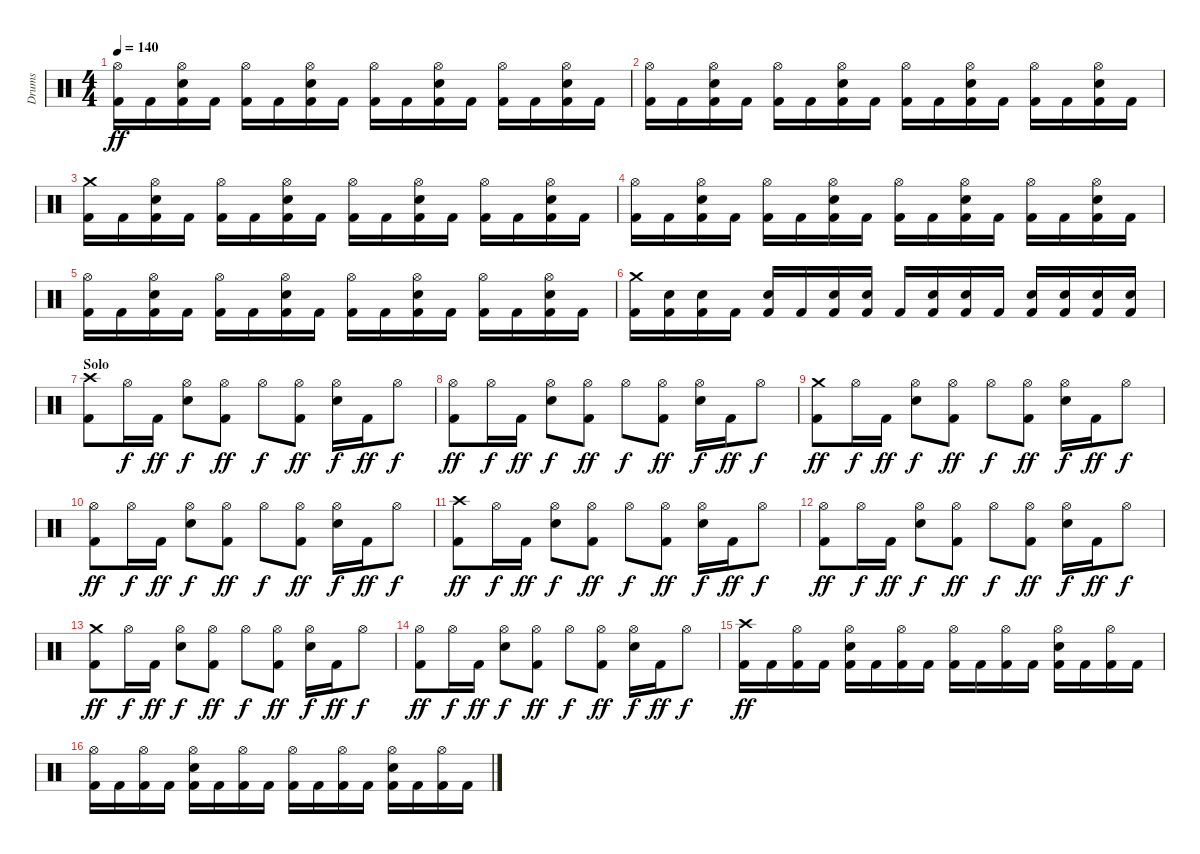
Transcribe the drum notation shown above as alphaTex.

\track ("Drums" "Drums") {instrument percussion}
\staff {score}
\articulation defaults
\ts (4 4)
\tempo 140
\clef neutral
\ks c
("Hi-Hat (open)" "Kick (hit) 2").16{dy ff} "Kick (hit) 2".16 ("Hi-Hat (open)" "Electric Snare (hit)" "Kick (hit) 2").16 "Kick (hit) 2".16 ("Hi-Hat (open)" "Kick (hit) 2").16 "Kick (hit) 2".16 ("Hi-Hat (open)" "Electric Snare (hit)" "Kick (hit) 2").16 "Kick (hit) 2".16 ("Hi-Hat (open)" "Kick (hit) 2").16 "Kick (hit) 2".16 ("Hi-Hat (open)" "Electric Snare (hit)" "Kick (hit) 2").16 "Kick (hit) 2".16 ("Hi-Hat (open)" "Kick (hit) 2").16 "Kick (hit) 2".16 ("Hi-Hat (open)" "Electric Snare (hit)" "Kick (hit) 2").16 "Kick (hit) 2".16 |
("Hi-Hat (open)" "Kick (hit) 2").16 "Kick (hit) 2".16 ("Hi-Hat (open)" "Electric Snare (hit)" "Kick (hit) 2").16 "Kick (hit) 2".16 ("Hi-Hat (open)" "Kick (hit) 2").16 "Kick (hit) 2".16 ("Hi-Hat (open)" "Electric Snare (hit)" "Kick (hit) 2").16 "Kick (hit) 2".16 ("Hi-Hat (open)" "Kick (hit) 2").16 "Kick (hit) 2".16 ("Hi-Hat (open)" "Electric Snare (hit)" "Kick (hit) 2").16 "Kick (hit) 2".16 ("Hi-Hat (open)" "Kick (hit) 2").16 "Kick (hit) 2".16 ("Hi-Hat (open)" "Electric Snare (hit)" "Kick (hit) 2").16 "Kick (hit) 2".16 |
("Crash medium (hit)" "Kick (hit) 2").16 "Kick (hit) 2".16 ("Hi-Hat (open)" "Electric Snare (hit)" "Kick (hit) 2").16 "Kick (hit) 2".16 ("Hi-Hat (open)" "Kick (hit) 2").16 "Kick (hit) 2".16 ("Hi-Hat (open)" "Electric Snare (hit)" "Kick (hit) 2").16 "Kick (hit) 2".16 ("Hi-Hat (open)" "Kick (hit) 2").16 "Kick (hit) 2".16 ("Hi-Hat (open)" "Electric Snare (hit)" "Kick (hit) 2").16 "Kick (hit) 2".16 ("Hi-Hat (open)" "Kick (hit) 2").16 "Kick (hit) 2".16 ("Hi-Hat (open)" "Electric Snare (hit)" "Kick (hit) 2").16 "Kick (hit) 2".16 |
("Hi-Hat (open)" "Kick (hit) 2").16 "Kick (hit) 2".16 ("Hi-Hat (open)" "Electric Snare (hit)" "Kick (hit) 2").16 "Kick (hit) 2".16 ("Hi-Hat (open)" "Kick (hit) 2").16 "Kick (hit) 2".16 ("Hi-Hat (open)" "Electric Snare (hit)" "Kick (hit) 2").16 "Kick (hit) 2".16 ("Hi-Hat (open)" "Kick (hit) 2").16 "Kick (hit) 2".16 ("Hi-Hat (open)" "Electric Snare (hit)" "Kick (hit) 2").16 "Kick (hit) 2".16 ("Hi-Hat (open)" "Kick (hit) 2").16 "Kick (hit) 2".16 ("Hi-Hat (open)" "Electric Snare (hit)" "Kick (hit) 2").16 "Kick (hit) 2".16 |
("Hi-Hat (open)" "Kick (hit) 2").16 "Kick (hit) 2".16 ("Hi-Hat (open)" "Electric Snare (hit)" "Kick (hit) 2").16 "Kick (hit) 2".16 ("Hi-Hat (open)" "Kick (hit) 2").16 "Kick (hit) 2".16 ("Hi-Hat (open)" "Electric Snare (hit)" "Kick (hit) 2").16 "Kick (hit) 2".16 ("Hi-Hat (open)" "Kick (hit) 2").16 "Kick (hit) 2".16 ("Hi-Hat (open)" "Electric Snare (hit)" "Kick (hit) 2").16 "Kick (hit) 2".16 ("Hi-Hat (open)" "Kick (hit) 2").16 "Kick (hit) 2".16 ("Hi-Hat (open)" "Electric Snare (hit)" "Kick (hit) 2").16 "Kick (hit) 2".16 |
("Crash medium (hit)" "Kick (hit) 2").16 ("Electric Snare (hit)" "Kick (hit) 2").16 ("Electric Snare (hit)" "Kick (hit) 2").16 "Kick (hit) 2".16 ("Electric Snare (hit)" "Kick (hit) 2").16 "Kick (hit) 2".16 ("Electric Snare (hit)" "Kick (hit) 2").16 ("Electric Snare (hit)" "Kick (hit) 2").16 "Kick (hit) 2".16 ("Electric Snare (hit)" "Kick (hit) 2").16 ("Electric Snare (hit)" "Kick (hit) 2").16 "Kick (hit) 2".16 ("Electric Snare (hit)" "Kick (hit) 2").16 ("Electric Snare (hit)" "Kick (hit) 2").16 ("Electric Snare (hit)" "Kick (hit) 2").16 ("Electric Snare (hit)" "Kick (hit) 2").16 |
\section ("" "Solo")
("Crash high (hit)" "Kick (hit) 2").8 "Hi-Hat (open)".16{dy f} "Kick (hit) 2".16{dy ff} ("Hi-Hat (open)" "Electric Snare (hit)").8{dy f} ("Hi-Hat (open)" "Kick (hit) 2").8{dy ff} "Hi-Hat (open)".8{dy f} ("Hi-Hat (open)" "Kick (hit) 2").8{dy ff} ("Hi-Hat (open)" "Electric Snare (hit)").16{dy f} "Kick (hit) 2".16{dy ff} "Hi-Hat (open)".8{dy f} |
("Hi-Hat (open)" "Kick (hit) 2").8{dy ff} "Hi-Hat (open)".16{dy f} "Kick (hit) 2".16{dy ff} ("Hi-Hat (open)" "Electric Snare (hit)").8{dy f} ("Hi-Hat (open)" "Kick (hit) 2").8{dy ff} "Hi-Hat (open)".8{dy f} ("Hi-Hat (open)" "Kick (hit) 2").8{dy ff} ("Hi-Hat (open)" "Electric Snare (hit)").16{dy f} "Kick (hit) 2".16{dy ff} "Hi-Hat (open)".8{dy f} |
("Crash medium (hit)" "Kick (hit) 2").8{dy ff} "Hi-Hat (open)".16{dy f} "Kick (hit) 2".16{dy ff} ("Hi-Hat (open)" "Electric Snare (hit)").8{dy f} ("Hi-Hat (open)" "Kick (hit) 2").8{dy ff} "Hi-Hat (open)".8{dy f} ("Hi-Hat (open)" "Kick (hit) 2").8{dy ff} ("Hi-Hat (open)" "Electric Snare (hit)").16{dy f} "Kick (hit) 2".16{dy ff} "Hi-Hat (open)".8{dy f} |
("Hi-Hat (open)" "Kick (hit) 2").8{dy ff} "Hi-Hat (open)".16{dy f} "Kick (hit) 2".16{dy ff} ("Hi-Hat (open)" "Electric Snare (hit)").8{dy f} ("Hi-Hat (open)" "Kick (hit) 2").8{dy ff} "Hi-Hat (open)".8{dy f} ("Hi-Hat (open)" "Kick (hit) 2").8{dy ff} ("Hi-Hat (open)" "Electric Snare (hit)").16{dy f} "Kick (hit) 2".16{dy ff} "Hi-Hat (open)".8{dy f} |
("Crash high (hit)" "Kick (hit) 2").8{dy ff} "Hi-Hat (open)".16{dy f} "Kick (hit) 2".16{dy ff} ("Hi-Hat (open)" "Electric Snare (hit)").8{dy f} ("Hi-Hat (open)" "Kick (hit) 2").8{dy ff} "Hi-Hat (open)".8{dy f} ("Hi-Hat (open)" "Kick (hit) 2").8{dy ff} ("Hi-Hat (open)" "Electric Snare (hit)").16{dy f} "Kick (hit) 2".16{dy ff} "Hi-Hat (open)".8{dy f} |
("Hi-Hat (open)" "Kick (hit) 2").8{dy ff} "Hi-Hat (open)".16{dy f} "Kick (hit) 2".16{dy ff} ("Hi-Hat (open)" "Electric Snare (hit)").8{dy f} ("Hi-Hat (open)" "Kick (hit) 2").8{dy ff} "Hi-Hat (open)".8{dy f} ("Hi-Hat (open)" "Kick (hit) 2").8{dy ff} ("Hi-Hat (open)" "Electric Snare (hit)").16{dy f} "Kick (hit) 2".16{dy ff} "Hi-Hat (open)".8{dy f} |
("Crash medium (hit)" "Kick (hit) 2").8{dy ff} "Hi-Hat (open)".16{dy f} "Kick (hit) 2".16{dy ff} ("Hi-Hat (open)" "Electric Snare (hit)").8{dy f} ("Hi-Hat (open)" "Kick (hit) 2").8{dy ff} "Hi-Hat (open)".8{dy f} ("Hi-Hat (open)" "Kick (hit) 2").8{dy ff} ("Hi-Hat (open)" "Electric Snare (hit)").16{dy f} "Kick (hit) 2".16{dy ff} "Hi-Hat (open)".8{dy f} |
("Hi-Hat (open)" "Kick (hit) 2").8{dy ff} "Hi-Hat (open)".16{dy f} "Kick (hit) 2".16{dy ff} ("Hi-Hat (open)" "Electric Snare (hit)").8{dy f} ("Hi-Hat (open)" "Kick (hit) 2").8{dy ff} "Hi-Hat (open)".8{dy f} ("Hi-Hat (open)" "Kick (hit) 2").8{dy ff} ("Hi-Hat (open)" "Electric Snare (hit)").16{dy f} "Kick (hit) 2".16{dy ff} "Hi-Hat (open)".8{dy f} |
("Crash high (hit)" "Kick (hit) 2").16{dy ff} "Kick (hit) 2".16 ("Hi-Hat (open)" "Kick (hit) 2").16 "Kick (hit) 2".16 ("Hi-Hat (open)" "Electric Snare (hit)" "Kick (hit) 2").16 "Kick (hit) 2".16 ("Hi-Hat (open)" "Kick (hit) 2").16 "Kick (hit) 2".16 ("Hi-Hat (open)" "Kick (hit) 2").16 "Kick (hit) 2".16 ("Hi-Hat (open)" "Kick (hit) 2").16 "Kick (hit) 2".16 ("Hi-Hat (open)" "Electric Snare (hit)" "Kick (hit) 2").16 "Kick (hit) 2".16 ("Hi-Hat (open)" "Kick (hit) 2").16 "Kick (hit) 2".16 |
("Hi-Hat (open)" "Kick (hit) 2").16 "Kick (hit) 2".16 ("Hi-Hat (open)" "Kick (hit) 2").16 "Kick (hit) 2".16 ("Hi-Hat (open)" "Electric Snare (hit)" "Kick (hit) 2").16 "Kick (hit) 2".16 ("Hi-Hat (open)" "Kick (hit) 2").16 "Kick (hit) 2".16 ("Hi-Hat (open)" "Kick (hit) 2").16 "Kick (hit) 2".16 ("Hi-Hat (open)" "Kick (hit) 2").16 "Kick (hit) 2".16 ("Hi-Hat (open)" "Electric Snare (hit)" "Kick (hit) 2").16 "Kick (hit) 2".16 ("Hi-Hat (open)" "Kick (hit) 2").16 "Kick (hit) 2".16
